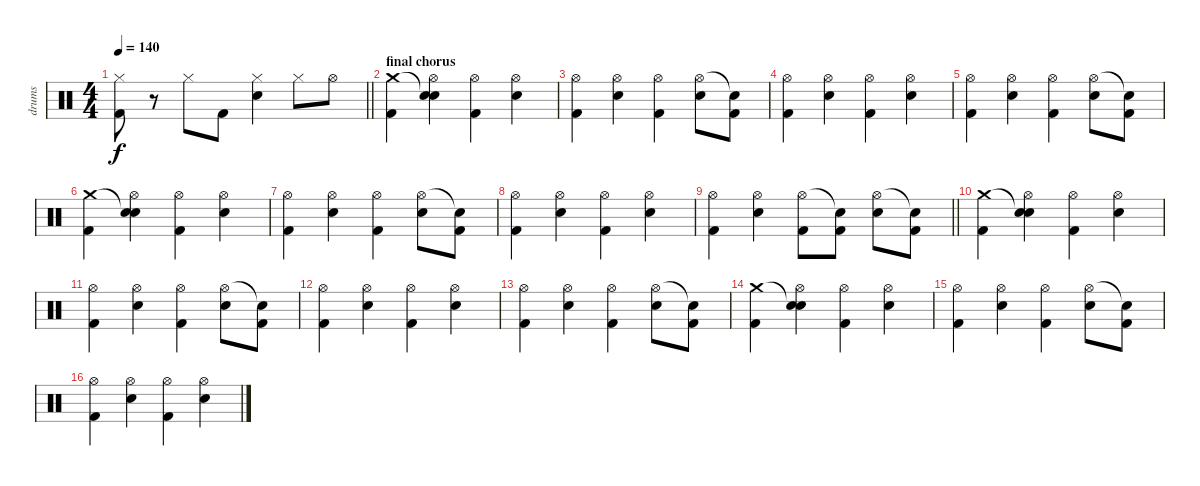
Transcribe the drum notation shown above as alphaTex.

\track ("drums" "drums") {instrument percussion}
\staff {score}
\articulation defaults
\ts (4 4)
\tempo 140
\clef neutral
\barLineRight lightlight
\ks c
("Hi-Hat (closed)" "Kick (hit) 2").8{dy f} r.8 "Hi-Hat (closed)".8 "Kick (hit) 2".8 ("Hi-Hat (closed)" "Snare (hit) 2").4 "Hi-Hat (closed)".8 "Hi-Hat (open)".8 |
\section ("" "final chorus")
("Crash medium (hit)" "Kick (hit) 2").4 ("Snare (hit)"{t} "Hi-Hat (open)" "Electric Snare (hit)").4 ("Hi-Hat (open)" "Kick (hit) 2").4 ("Hi-Hat (open)" "Electric Snare (hit)").4 |
("Hi-Hat (open)" "Kick (hit) 2").4 ("Hi-Hat (open)" "Electric Snare (hit)").4 ("Hi-Hat (open)" "Kick (hit) 2").4 ("Hi-Hat (open)" "Electric Snare (hit)").8 ("Snare (hit)"{t} "Kick (hit) 2").8 |
("Hi-Hat (open)" "Kick (hit) 2").4 ("Hi-Hat (open)" "Electric Snare (hit)").4 ("Hi-Hat (open)" "Kick (hit) 2").4 ("Hi-Hat (open)" "Electric Snare (hit)").4 |
("Hi-Hat (open)" "Kick (hit) 2").4 ("Hi-Hat (open)" "Electric Snare (hit)").4 ("Hi-Hat (open)" "Kick (hit) 2").4 ("Hi-Hat (open)" "Electric Snare (hit)").8 ("Snare (hit)"{t} "Kick (hit) 2").8 |
("Crash medium (hit)" "Kick (hit) 2").4 ("Snare (hit)"{t} "Hi-Hat (open)" "Electric Snare (hit)").4 ("Hi-Hat (open)" "Kick (hit) 2").4 ("Hi-Hat (open)" "Electric Snare (hit)").4 |
("Hi-Hat (open)" "Kick (hit) 2").4 ("Hi-Hat (open)" "Electric Snare (hit)").4 ("Hi-Hat (open)" "Kick (hit) 2").4 ("Hi-Hat (open)" "Electric Snare (hit)").8 ("Snare (hit)"{t} "Kick (hit) 2").8 |
("Hi-Hat (open)" "Kick (hit) 2").4 ("Hi-Hat (open)" "Electric Snare (hit)").4 ("Hi-Hat (open)" "Kick (hit) 2").4 ("Hi-Hat (open)" "Electric Snare (hit)").4 |
\barLineRight lightlight
("Hi-Hat (open)" "Kick (hit) 2").4 ("Hi-Hat (open)" "Electric Snare (hit)").4 ("Hi-Hat (open)" "Kick (hit) 2").8 ("Snare (hit)"{t} "Kick (hit) 2").8 ("Hi-Hat (open)" "Electric Snare (hit)").8 ("Snare (hit)"{t} "Kick (hit) 2").8 |
("Crash medium (hit)" "Kick (hit) 2").4 ("Snare (hit)"{t} "Hi-Hat (open)" "Electric Snare (hit)").4 ("Hi-Hat (open)" "Kick (hit) 2").4 ("Hi-Hat (open)" "Electric Snare (hit)").4 |
("Hi-Hat (open)" "Kick (hit) 2").4 ("Hi-Hat (open)" "Electric Snare (hit)").4 ("Hi-Hat (open)" "Kick (hit) 2").4 ("Hi-Hat (open)" "Electric Snare (hit)").8 ("Snare (hit)"{t} "Kick (hit) 2").8 |
("Hi-Hat (open)" "Kick (hit) 2").4 ("Hi-Hat (open)" "Electric Snare (hit)").4 ("Hi-Hat (open)" "Kick (hit) 2").4 ("Hi-Hat (open)" "Electric Snare (hit)").4 |
("Hi-Hat (open)" "Kick (hit) 2").4 ("Hi-Hat (open)" "Electric Snare (hit)").4 ("Hi-Hat (open)" "Kick (hit) 2").4 ("Hi-Hat (open)" "Electric Snare (hit)").8 ("Snare (hit)"{t} "Kick (hit) 2").8 |
("Crash medium (hit)" "Kick (hit) 2").4 ("Snare (hit)"{t} "Hi-Hat (open)" "Electric Snare (hit)").4 ("Hi-Hat (open)" "Kick (hit) 2").4 ("Hi-Hat (open)" "Electric Snare (hit)").4 |
("Hi-Hat (open)" "Kick (hit) 2").4 ("Hi-Hat (open)" "Electric Snare (hit)").4 ("Hi-Hat (open)" "Kick (hit) 2").4 ("Hi-Hat (open)" "Electric Snare (hit)").8 ("Snare (hit)"{t} "Kick (hit) 2").8 |
("Hi-Hat (open)" "Kick (hit) 2").4 ("Hi-Hat (open)" "Electric Snare (hit)").4 ("Hi-Hat (open)" "Kick (hit) 2").4 ("Hi-Hat (open)" "Electric Snare (hit)").4
